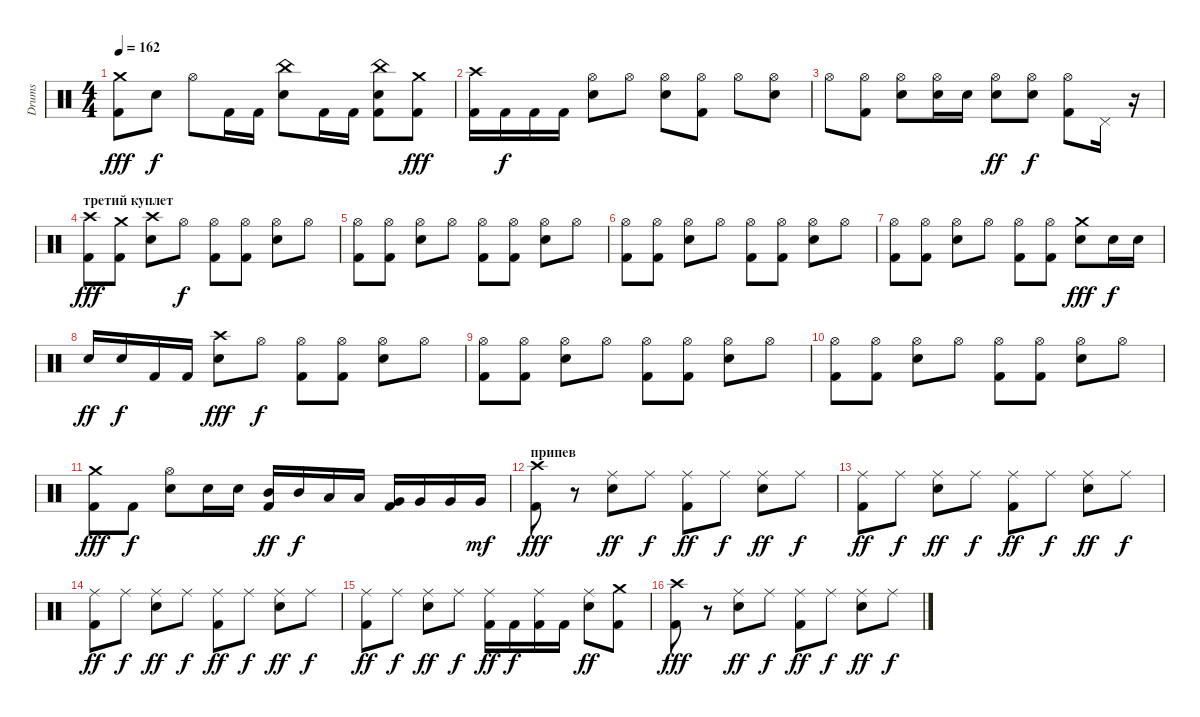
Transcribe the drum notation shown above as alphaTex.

\track ("Drums" "Drums") {instrument percussion}
\staff {score}
\articulation defaults
\ts (4 4)
\tempo 162
\clef neutral
\ks c
("Crash medium (hit)" "Kick (hit) 2").8{dy fff} "Snare (hit) 2".8{dy f} "Hi-Hat (open)".8 "Kick (hit) 2".16 "Kick (hit) 2".16 ("China (hit)" "Snare (hit) 2").8 "Kick (hit) 2".16 "Kick (hit) 2".16 ("China (hit)" "Snare (hit) 2" "Kick (hit) 2").8 ("Crash medium (hit)" "Kick (hit) 2").8{dy fff} |
("Crash high (hit)" "Kick (hit) 2").16 "Kick (hit) 2".16{dy f} "Kick (hit) 2".16 "Kick (hit) 2".16 ("Hi-Hat (open)" "Snare (hit) 2").8 "Hi-Hat (open)".8 ("Hi-Hat (open)" "Snare (hit) 2").8 ("Hi-Hat (open)" "Kick (hit) 2").8 "Hi-Hat (open)".8 ("Hi-Hat (open)" "Snare (hit) 2").8 |
"Hi-Hat (open)".8 ("Hi-Hat (open)" "Kick (hit) 2").8 ("Hi-Hat (open)" "Snare (hit) 2").8 ("Hi-Hat (open)" "Snare (hit) 2").16 "Snare (hit) 2".16 ("Hi-Hat (open)" "Snare (hit) 2").8{dy ff} ("Hi-Hat (open)" "Snare (hit) 2").8{dy f} ("Hi-Hat (open)" "Kick (hit) 2").8 "Pedal Hi-Hat (hit)".16 r.16 |
\section ("" "третий куплет")
("Crash high (hit)" "Kick (hit) 2").8{dy fff} ("Crash medium (hit)" "Kick (hit) 2").8 ("Crash high (hit)" "Snare (hit) 2").8 "Hi-Hat (open)".8{dy f} ("Hi-Hat (open)" "Kick (hit) 2").8 ("Hi-Hat (open)" "Kick (hit) 2").8 ("Hi-Hat (open)" "Snare (hit) 2").8 "Hi-Hat (open)".8 |
("Hi-Hat (open)" "Kick (hit) 2").8 ("Hi-Hat (open)" "Kick (hit) 2").8 ("Hi-Hat (open)" "Snare (hit) 2").8 "Hi-Hat (open)".8 ("Hi-Hat (open)" "Kick (hit) 2").8 ("Hi-Hat (open)" "Kick (hit) 2").8 ("Hi-Hat (open)" "Snare (hit) 2").8 "Hi-Hat (open)".8 |
("Hi-Hat (open)" "Kick (hit) 2").8 ("Hi-Hat (open)" "Kick (hit) 2").8 ("Hi-Hat (open)" "Snare (hit) 2").8 "Hi-Hat (open)".8 ("Hi-Hat (open)" "Kick (hit) 2").8 ("Hi-Hat (open)" "Kick (hit) 2").8 ("Hi-Hat (open)" "Snare (hit) 2").8 "Hi-Hat (open)".8 |
("Hi-Hat (open)" "Kick (hit) 2").8 ("Hi-Hat (open)" "Kick (hit) 2").8 ("Hi-Hat (open)" "Snare (hit) 2").8 "Hi-Hat (open)".8 ("Hi-Hat (open)" "Kick (hit) 2").8 ("Hi-Hat (open)" "Kick (hit) 2").8 ("Crash medium (hit)" "Snare (hit) 2").8{dy fff} "Snare (hit) 2".16{dy f} "Snare (hit) 2".16 |
"Snare (hit) 2".16{dy ff} "Snare (hit) 2".16{dy f} "Kick (hit) 2".16 "Kick (hit) 2".16 ("Crash high (hit)" "Snare (hit) 2").8{dy fff} "Hi-Hat (open)".8{dy f} ("Hi-Hat (open)" "Kick (hit) 2").8 ("Hi-Hat (open)" "Kick (hit) 2").8 ("Hi-Hat (open)" "Snare (hit) 2").8 "Hi-Hat (open)".8 |
("Hi-Hat (open)" "Kick (hit) 2").8 ("Hi-Hat (open)" "Kick (hit) 2").8 ("Hi-Hat (open)" "Snare (hit) 2").8 "Hi-Hat (open)".8 ("Hi-Hat (open)" "Kick (hit) 2").8 ("Hi-Hat (open)" "Kick (hit) 2").8 ("Hi-Hat (open)" "Snare (hit) 2").8 "Hi-Hat (open)".8 |
("Hi-Hat (open)" "Kick (hit) 2").8 ("Hi-Hat (open)" "Kick (hit) 2").8 ("Hi-Hat (open)" "Snare (hit) 2").8 "Hi-Hat (open)".8 ("Hi-Hat (open)" "Kick (hit) 2").8 ("Hi-Hat (open)" "Kick (hit) 2").8 ("Hi-Hat (open)" "Snare (hit) 2").8 "Hi-Hat (open)".8 |
("Crash medium (hit)" "Kick (hit) 2").8{dy fff} "Kick (hit) 2".8{dy f} ("Hi-Hat (open)" "Snare (hit) 2").8 "Snare (hit) 2".16 "Snare (hit) 2".16 ("Mid Tom (hit)" "Kick (hit) 2").16{dy ff} "Mid Tom (hit)".16{dy f} "Low Tom (hit)".16 "Low Tom (hit)".16 ("Very Low Tom (hit)" "Kick (hit) 2").16 "Very Low Tom (hit)".16 "Very Low Tom (hit)".16 "Very Low Tom (hit)".16{dy mf} |
\section ("" "припев")
("Crash high (hit)" "Kick (hit) 2").8{dy fff} r.8 ("Ride (middle)" "Snare (hit) 2").8{dy ff} "Ride (middle)".8{dy f} ("Ride (middle)" "Kick (hit) 2").8{dy ff} "Ride (middle)".8{dy f} ("Ride (middle)" "Snare (hit) 2").8{dy ff} "Ride (middle)".8{dy f} |
("Ride (middle)" "Kick (hit) 2").8{dy ff} "Ride (middle)".8{dy f} ("Ride (middle)" "Snare (hit) 2").8{dy ff} "Ride (middle)".8{dy f} ("Ride (middle)" "Kick (hit) 2").8{dy ff} "Ride (middle)".8{dy f} ("Ride (middle)" "Snare (hit) 2").8{dy ff} "Ride (middle)".8{dy f} |
("Ride (middle)" "Kick (hit) 2").8{dy ff} "Ride (middle)".8{dy f} ("Ride (middle)" "Snare (hit) 2").8{dy ff} "Ride (middle)".8{dy f} ("Ride (middle)" "Kick (hit) 2").8{dy ff} "Ride (middle)".8{dy f} ("Ride (middle)" "Snare (hit) 2").8{dy ff} "Ride (middle)".8{dy f} |
("Ride (middle)" "Kick (hit) 2").8{dy ff} "Ride (middle)".8{dy f} ("Ride (middle)" "Snare (hit) 2").8{dy ff} "Ride (middle)".8{dy f} ("Ride (middle)" "Kick (hit) 2").16{dy ff} "Kick (hit) 2".16{dy f} ("Ride (middle)" "Kick (hit) 2").16 "Kick (hit) 2".16 ("Ride (middle)" "Snare (hit) 2").8{dy ff} ("Crash medium (hit)" "Kick (hit) 2").8 |
("Crash high (hit)" "Kick (hit) 2").8{dy fff} r.8 ("Ride (middle)" "Snare (hit) 2").8{dy ff} "Ride (middle)".8{dy f} ("Ride (middle)" "Kick (hit) 2").8{dy ff} "Ride (middle)".8{dy f} ("Ride (middle)" "Snare (hit) 2").8{dy ff} "Ride (middle)".8{dy f}
